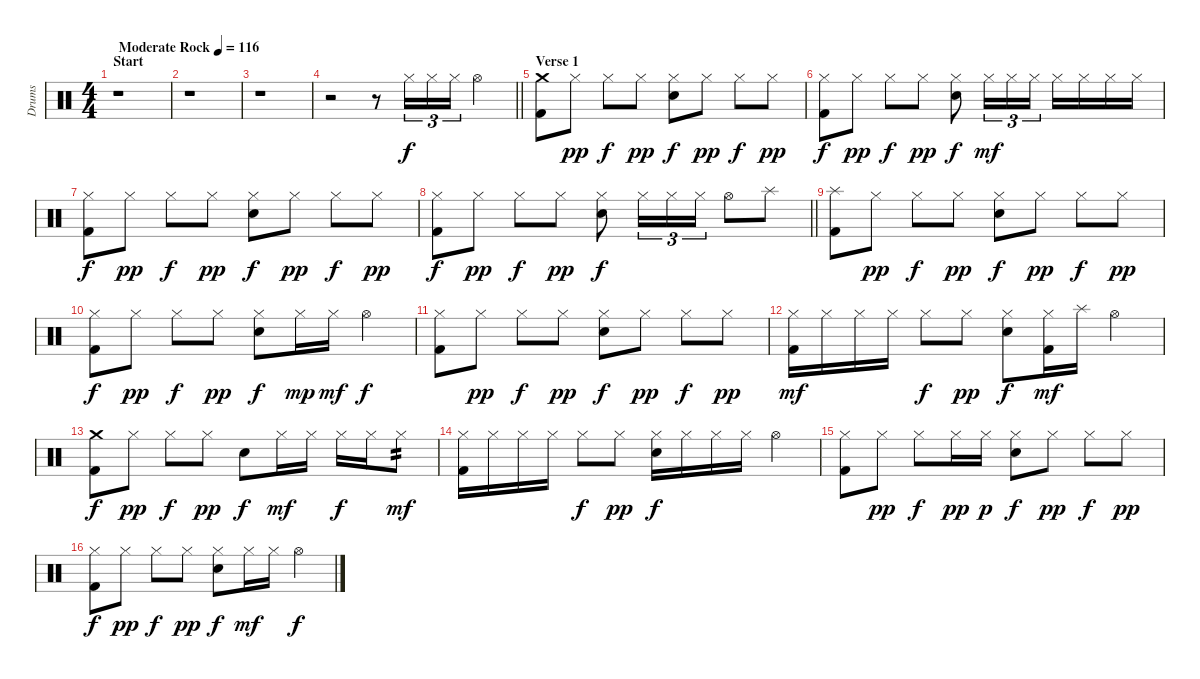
\track ("Drums" "Drums") {instrument percussion}
\staff {score}
\articulation defaults
\ts (4 4)
\section ("" "Start")
\tempo (116 "Moderate Rock")
\clef neutral
\ks c
r.1{dy f} |
r.1 |
r.1 |
\barLineRight lightlight
r.2 r.8 "Hi-Hat (closed)".16{tu (3 2)} "Hi-Hat (closed)".16{tu (3 2)} "Hi-Hat (closed)".16{tu (3 2)} "Hi-Hat (open)".4 |
\section ("" "Verse 1")
("Crash medium (hit)" "Kick (hit) 2").8 "Hi-Hat (closed)".8{dy pp} "Hi-Hat (closed)".8{dy f} "Hi-Hat (closed)".8{dy pp} ("Hi-Hat (closed)" "Electric Snare (hit)").8{dy f} "Hi-Hat (closed)".8{dy pp} "Hi-Hat (closed)".8{dy f} "Hi-Hat (closed)".8{dy pp} |
("Hi-Hat (closed)" "Kick (hit) 2").8{dy f} "Hi-Hat (closed)".8{dy pp} "Hi-Hat (closed)".8{dy f} "Hi-Hat (closed)".8{dy pp} ("Hi-Hat (closed)" "Electric Snare (hit)").8{dy f} "Hi-Hat (closed)".16{tu (3 2) dy mf} "Hi-Hat (closed)".16{tu (3 2)} "Hi-Hat (closed)".16{tu (3 2)} "Hi-Hat (closed)".16 "Hi-Hat (closed)".16 "Hi-Hat (closed)".16 "Hi-Hat (closed)".16 |
("Hi-Hat (closed)" "Kick (hit) 2").8{dy f} "Hi-Hat (closed)".8{dy pp} "Hi-Hat (closed)".8{dy f} "Hi-Hat (closed)".8{dy pp} ("Hi-Hat (closed)" "Electric Snare (hit)").8{dy f} "Hi-Hat (closed)".8{dy pp} "Hi-Hat (closed)".8{dy f} "Hi-Hat (closed)".8{dy pp} |
\barLineRight lightlight
("Hi-Hat (closed)" "Kick (hit) 2").8{dy f} "Hi-Hat (closed)".8{dy pp} "Hi-Hat (closed)".8{dy f} "Hi-Hat (closed)".8{dy pp} ("Hi-Hat (closed)" "Electric Snare (hit)").8{dy f} "Hi-Hat (closed)".16{tu (3 2)} "Hi-Hat (closed)".16{tu (3 2)} "Hi-Hat (closed)".16{tu (3 2)} "Hi-Hat (open)".8 "Splash (hit)".8 |
("Splash (hit)" "Kick (hit) 2").8 "Hi-Hat (closed)".8{dy pp} "Hi-Hat (closed)".8{dy f} "Hi-Hat (closed)".8{dy pp} ("Hi-Hat (closed)" "Electric Snare (hit)").8{dy f} "Hi-Hat (closed)".8{dy pp} "Hi-Hat (closed)".8{dy f} "Hi-Hat (closed)".8{dy pp} |
("Hi-Hat (closed)" "Kick (hit) 2").8{dy f} "Hi-Hat (closed)".8{dy pp} "Hi-Hat (closed)".8{dy f} "Hi-Hat (closed)".8{dy pp} ("Hi-Hat (closed)" "Electric Snare (hit)").8{dy f} "Hi-Hat (closed)".16{dy mp} "Hi-Hat (closed)".16{dy mf} "Hi-Hat (open)".4{dy f} |
("Hi-Hat (closed)" "Kick (hit) 2").8 "Hi-Hat (closed)".8{dy pp} "Hi-Hat (closed)".8{dy f} "Hi-Hat (closed)".8{dy pp} ("Hi-Hat (closed)" "Electric Snare (hit)").8{dy f} "Hi-Hat (closed)".8{dy pp} "Hi-Hat (closed)".8{dy f} "Hi-Hat (closed)".8{dy pp} |
("Hi-Hat (closed)" "Kick (hit) 2").16{dy mf} "Hi-Hat (closed)".16 "Hi-Hat (closed)".16 "Hi-Hat (closed)".16 "Hi-Hat (closed)".8{dy f} "Hi-Hat (closed)".8{dy pp} ("Hi-Hat (closed)" "Electric Snare (hit)").8{dy f} ("Hi-Hat (closed)" "Kick (hit) 2").16{dy mf} "Splash (hit)".16 "Hi-Hat (open)".4 |
("Crash medium (hit)" "Kick (hit) 2").8{dy f} "Hi-Hat (closed)".8{dy pp} "Hi-Hat (closed)".8{dy f} "Hi-Hat (closed)".8{dy pp} "Electric Snare (hit)".8{dy f} "Hi-Hat (closed)".16{dy mf} "Hi-Hat (closed)".16 "Hi-Hat (closed)".16{dy f} "Hi-Hat (closed)".16 "Hi-Hat (closed)".8{tp 2 dy mf} |
("Hi-Hat (closed)" "Kick (hit) 2").16 "Hi-Hat (closed)".16 "Hi-Hat (closed)".16 "Hi-Hat (closed)".16 "Hi-Hat (closed)".8{dy f} "Hi-Hat (closed)".8{dy pp} ("Hi-Hat (closed)" "Electric Snare (hit)").16{dy f} "Hi-Hat (closed)".16 "Hi-Hat (closed)".16 "Hi-Hat (closed)".16 "Hi-Hat (open)".4 |
("Hi-Hat (closed)" "Kick (hit) 2").8 "Hi-Hat (closed)".8{dy pp} "Hi-Hat (closed)".8{dy f} "Hi-Hat (closed)".16{dy pp} "Hi-Hat (closed)".16{dy p} ("Hi-Hat (closed)" "Electric Snare (hit)").8{dy f} "Hi-Hat (closed)".8{dy pp} "Hi-Hat (closed)".8{dy f} "Hi-Hat (closed)".8{dy pp} |
("Hi-Hat (closed)" "Kick (hit) 2").8{dy f} "Hi-Hat (closed)".8{dy pp} "Hi-Hat (closed)".8{dy f} "Hi-Hat (closed)".8{dy pp} ("Hi-Hat (closed)" "Electric Snare (hit)").8{dy f} "Hi-Hat (closed)".16{dy mf} "Hi-Hat (closed)".16 "Hi-Hat (open)".4{dy f}
